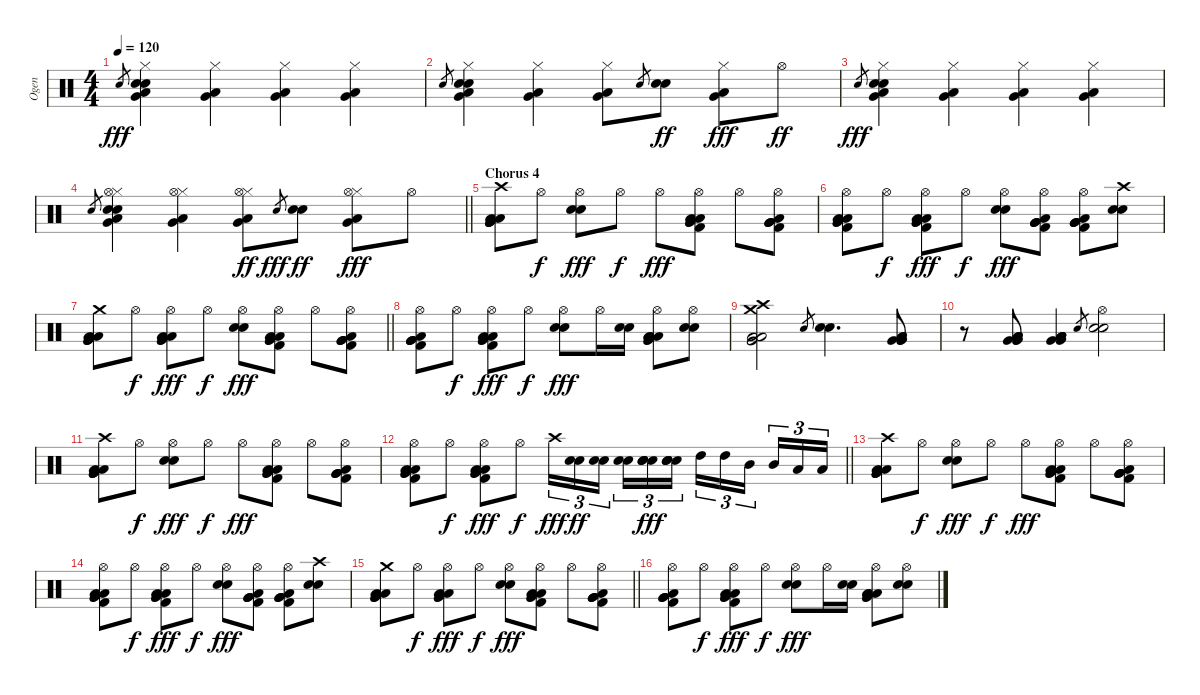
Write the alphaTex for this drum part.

\track ("Ogen" "Ogen") {instrument percussion}
\staff {score}
\articulation defaults
\ts (4 4)
\tempo 120
\clef neutral
\ks c "Electric Snare (hit)".8{gr dy fff}
("Very Low Tom (hit)" "Low Floor Tom (hit)" "Electric Snare (hit)" "Snare (hit) 2" "Hi-Hat (closed)").4 ("Low Floor Tom (hit)" "Very Low Tom (hit)" "Hi-Hat (closed)").4 ("Very Low Tom (hit)" "Low Floor Tom (hit)" "Hi-Hat (closed)").4 ("Low Floor Tom (hit)" "Very Low Tom (hit)" "Hi-Hat (closed)").4 |
"Electric Snare (hit)".8{gr} ("Very Low Tom (hit)" "Low Floor Tom (hit)" "Electric Snare (hit)" "Snare (hit) 2" "Hi-Hat (closed)").4 ("Low Floor Tom (hit)" "Very Low Tom (hit)" "Hi-Hat (closed)").4 ("Very Low Tom (hit)" "Low Floor Tom (hit)" "Hi-Hat (closed)").8 "Electric Snare (hit)".8{gr} ("Electric Snare (hit)" "Snare (hit) 2").8{dy ff} ("Low Floor Tom (hit)" "Very Low Tom (hit)" "Hi-Hat (closed)").8{dy fff} "Hi-Hat (open)".8{dy ff} |
"Electric Snare (hit)".8{gr dy fff} ("Very Low Tom (hit)" "Low Floor Tom (hit)" "Electric Snare (hit)" "Snare (hit) 2" "Hi-Hat (closed)").4 ("Low Floor Tom (hit)" "Very Low Tom (hit)" "Hi-Hat (closed)").4 ("Very Low Tom (hit)" "Low Floor Tom (hit)" "Hi-Hat (closed)").4 ("Low Floor Tom (hit)" "Very Low Tom (hit)" "Hi-Hat (closed)").4 |
\barLineRight lightlight "Electric Snare (hit)".8{gr}
("Very Low Tom (hit)" "Low Floor Tom (hit)" "Electric Snare (hit)" "Snare (hit) 2" "Hi-Hat (closed)" "Hi-Hat (open)").4 ("Low Floor Tom (hit)" "Very Low Tom (hit)" "Hi-Hat (closed)" "Hi-Hat (open)").4 ("Very Low Tom (hit)" "Low Floor Tom (hit)" "Hi-Hat (closed)" "Hi-Hat (open)").8{dy ff} "Electric Snare (hit)".8{gr dy fff} ("Electric Snare (hit)" "Snare (hit) 2").8{dy ff} ("Low Floor Tom (hit)" "Very Low Tom (hit)" "Hi-Hat (closed)" "Hi-Hat (open)").8{dy fff} "Hi-Hat (open)".8 |
\section ("" "Chorus 4")
("Crash high (hit)" "Very Low Tom (hit)" "Low Floor Tom (hit)" "Very Low Tom (hit)" "Low Floor Tom (hit)" "Very Low Tom (hit)").8 "Hi-Hat (open)".8{dy f} ("Hi-Hat (open)" "Electric Snare (hit)" "Snare (hit) 2").8{dy fff} "Hi-Hat (open)".8{dy f} "Hi-Hat (open)".8{dy fff} ("Hi-Hat (open)" "Very Low Tom (hit)" "Kick (hit) 2" "Low Floor Tom (hit)" "Very Low Tom (hit)" "Low Floor Tom (hit)").8 "Hi-Hat (open)".8 ("Hi-Hat (open)" "Very Low Tom (hit)" "Kick (hit) 2" "Very Low Tom (hit)" "Low Floor Tom (hit)" "Very Low Tom (hit)").8 |
("Hi-Hat (open)" "Kick (hit) 2" "Very Low Tom (hit)" "Low Floor Tom (hit)" "Very Low Tom (hit)" "Low Floor Tom (hit)").8 "Hi-Hat (open)".8{dy f} ("Hi-Hat (open)" "Kick (hit) 2" "Very Low Tom (hit)" "Low Floor Tom (hit)" "Very Low Tom (hit)" "Low Floor Tom (hit)").8{dy fff} "Hi-Hat (open)".8{dy f} ("Hi-Hat (open)" "Snare (hit) 2" "Electric Snare (hit)").8{dy fff} ("Hi-Hat (open)" "Kick (hit) 2" "Very Low Tom (hit)" "Very Low Tom (hit)" "Low Floor Tom (hit)" "Very Low Tom (hit)").8 ("Hi-Hat (open)" "Very Low Tom (hit)" "Kick (hit) 2" "Very Low Tom (hit)" "Low Floor Tom (hit)" "Very Low Tom (hit)").8 ("Crash high (hit)" "Snare (hit) 2" "Electric Snare (hit)").8 |
\barLineRight lightlight
("Crash medium (hit)" "Very Low Tom (hit)" "Low Floor Tom (hit)" "Very Low Tom (hit)" "Low Floor Tom (hit)" "Very Low Tom (hit)").8 "Hi-Hat (open)".8{dy f} ("Hi-Hat (open)" "Very Low Tom (hit)" "Low Floor Tom (hit)" "Very Low Tom (hit)" "Low Floor Tom (hit)").8{dy fff} "Hi-Hat (open)".8{dy f} ("Hi-Hat (open)" "Snare (hit) 2" "Electric Snare (hit)").8{dy fff} ("Hi-Hat (open)" "Very Low Tom (hit)" "Kick (hit) 2" "Low Floor Tom (hit)" "Very Low Tom (hit)" "Low Floor Tom (hit)").8 "Hi-Hat (open)".8 ("Hi-Hat (open)" "Very Low Tom (hit)" "Kick (hit) 2" "Very Low Tom (hit)" "Low Floor Tom (hit)" "Very Low Tom (hit)").8 |
("Hi-Hat (open)" "Kick (hit) 2" "Very Low Tom (hit)" "Very Low Tom (hit)" "Low Floor Tom (hit)" "Very Low Tom (hit)").8 "Hi-Hat (open)".8{dy f} ("Hi-Hat (open)" "Kick (hit) 2" "Very Low Tom (hit)" "Low Floor Tom (hit)" "Very Low Tom (hit)" "Low Floor Tom (hit)").8{dy fff} "Hi-Hat (open)".8{dy f} ("Hi-Hat (open)" "Snare (hit) 2" "Electric Snare (hit)").8{dy fff} "Hi-Hat (open)".16 ("Snare (hit) 2" "Electric Snare (hit)").16 ("Low Floor Tom (hit)" "Low Floor Tom (hit)" "Low Floor Tom (hit)" "Very Low Tom (hit)" "Very Low Tom (hit)" "Hi-Hat (open)").8 ("Snare (hit) 2" "Electric Snare (hit)" "Hi-Hat (open)").8 |
("Crash high (hit)" "Crash medium (hit)" "Low Floor Tom (hit)" "Very Low Tom (hit)" "Low Floor Tom (hit)" "Very Low Tom (hit)").2 "Snare (hit) 2".8{gr} ("Snare (hit) 2" "Electric Snare (hit)").4{d} ("Very Low Tom (hit)" "Very Low Tom (hit)" "Low Floor Tom (hit)" "Very Low Tom (hit)" "Low Floor Tom (hit)").8 |
r.8 ("Very Low Tom (hit)" "Low Floor Tom (hit)" "Very Low Tom (hit)" "Low Floor Tom (hit)" "Very Low Tom (hit)" "Low Floor Tom (hit)").8 ("Low Floor Tom (hit)" "Very Low Tom (hit)" "Low Floor Tom (hit)" "Very Low Tom (hit)" "Low Floor Tom (hit)").4 "Electric Snare (hit)".8{gr} ("Electric Snare (hit)" "Snare (hit) 2" "Hi-Hat (open)").2 |
("Crash high (hit)" "Very Low Tom (hit)" "Low Floor Tom (hit)" "Very Low Tom (hit)" "Low Floor Tom (hit)" "Very Low Tom (hit)").8 "Hi-Hat (open)".8{dy f} ("Hi-Hat (open)" "Electric Snare (hit)" "Snare (hit) 2").8{dy fff} "Hi-Hat (open)".8{dy f} "Hi-Hat (open)".8{dy fff} ("Hi-Hat (open)" "Very Low Tom (hit)" "Kick (hit) 2" "Low Floor Tom (hit)" "Very Low Tom (hit)" "Low Floor Tom (hit)").8 "Hi-Hat (open)".8 ("Hi-Hat (open)" "Very Low Tom (hit)" "Kick (hit) 2" "Very Low Tom (hit)" "Low Floor Tom (hit)" "Very Low Tom (hit)").8 |
\barLineRight lightlight
("Hi-Hat (open)" "Kick (hit) 2" "Very Low Tom (hit)" "Low Floor Tom (hit)" "Very Low Tom (hit)" "Low Floor Tom (hit)").8 "Hi-Hat (open)".8{dy f} ("Hi-Hat (open)" "Kick (hit) 2" "Very Low Tom (hit)" "Low Floor Tom (hit)" "Very Low Tom (hit)" "Low Floor Tom (hit)").8{dy fff} "Hi-Hat (open)".8{dy f} "Crash high (hit)".16{tu (3 2) dy fff} ("Snare (hit) 2" "Electric Snare (hit)").16{tu (3 2) dy ff} ("Electric Snare (hit)" "Snare (hit) 2").16{tu (3 2) beam splitsecondary} ("Snare (hit) 2" "Electric Snare (hit)").16{tu (3 2)} ("Electric Snare (hit)" "Electric Snare (hit)" "Snare (hit) 2" "Snare (hit) 2").16{tu (3 2) dy fff} ("Electric Snare (hit)" "Snare (hit) 2" "Snare (hit) 2" "Electric Snare (hit)").16{tu (3 2)} "High Tom (hit)".16{tu (3 2)} "High Tom (hit)".16{tu (3 2)} "Mid Tom (hit)".16{tu (3 2) beam splitsecondary} "Mid Tom (hit)".16{tu (3 2)} "Low Tom (hit)".16{tu (3 2)} "Low Tom (hit)".16{tu (3 2)} |
("Crash high (hit)" "Very Low Tom (hit)" "Low Floor Tom (hit)" "Very Low Tom (hit)" "Low Floor Tom (hit)" "Very Low Tom (hit)").8 "Hi-Hat (open)".8{dy f} ("Hi-Hat (open)" "Electric Snare (hit)" "Snare (hit) 2").8{dy fff} "Hi-Hat (open)".8{dy f} "Hi-Hat (open)".8{dy fff} ("Hi-Hat (open)" "Very Low Tom (hit)" "Kick (hit) 2" "Low Floor Tom (hit)" "Very Low Tom (hit)" "Low Floor Tom (hit)").8 "Hi-Hat (open)".8 ("Hi-Hat (open)" "Very Low Tom (hit)" "Kick (hit) 2" "Very Low Tom (hit)" "Low Floor Tom (hit)" "Very Low Tom (hit)").8 |
("Hi-Hat (open)" "Kick (hit) 2" "Very Low Tom (hit)" "Low Floor Tom (hit)" "Very Low Tom (hit)" "Low Floor Tom (hit)").8 "Hi-Hat (open)".8{dy f} ("Hi-Hat (open)" "Kick (hit) 2" "Very Low Tom (hit)" "Low Floor Tom (hit)" "Very Low Tom (hit)" "Low Floor Tom (hit)").8{dy fff} "Hi-Hat (open)".8{dy f} ("Hi-Hat (open)" "Snare (hit) 2" "Electric Snare (hit)").8{dy fff} ("Hi-Hat (open)" "Kick (hit) 2" "Very Low Tom (hit)" "Very Low Tom (hit)" "Low Floor Tom (hit)" "Very Low Tom (hit)").8 ("Hi-Hat (open)" "Very Low Tom (hit)" "Kick (hit) 2" "Very Low Tom (hit)" "Low Floor Tom (hit)" "Very Low Tom (hit)").8 ("Crash high (hit)" "Snare (hit) 2" "Electric Snare (hit)").8 |
\barLineRight lightlight
("Crash medium (hit)" "Very Low Tom (hit)" "Low Floor Tom (hit)" "Very Low Tom (hit)" "Low Floor Tom (hit)" "Very Low Tom (hit)").8 "Hi-Hat (open)".8{dy f} ("Hi-Hat (open)" "Very Low Tom (hit)" "Low Floor Tom (hit)" "Very Low Tom (hit)" "Low Floor Tom (hit)").8{dy fff} "Hi-Hat (open)".8{dy f} ("Hi-Hat (open)" "Snare (hit) 2" "Electric Snare (hit)").8{dy fff} ("Hi-Hat (open)" "Very Low Tom (hit)" "Kick (hit) 2" "Low Floor Tom (hit)" "Very Low Tom (hit)" "Low Floor Tom (hit)").8 "Hi-Hat (open)".8 ("Hi-Hat (open)" "Very Low Tom (hit)" "Kick (hit) 2" "Very Low Tom (hit)" "Low Floor Tom (hit)" "Very Low Tom (hit)").8 |
("Hi-Hat (open)" "Kick (hit) 2" "Very Low Tom (hit)" "Very Low Tom (hit)" "Low Floor Tom (hit)" "Very Low Tom (hit)").8 "Hi-Hat (open)".8{dy f} ("Hi-Hat (open)" "Kick (hit) 2" "Very Low Tom (hit)" "Low Floor Tom (hit)" "Very Low Tom (hit)" "Low Floor Tom (hit)").8{dy fff} "Hi-Hat (open)".8{dy f} ("Hi-Hat (open)" "Snare (hit) 2" "Electric Snare (hit)").8{dy fff} "Hi-Hat (open)".16 ("Snare (hit) 2" "Electric Snare (hit)").16 ("Low Floor Tom (hit)" "Low Floor Tom (hit)" "Low Floor Tom (hit)" "Very Low Tom (hit)" "Very Low Tom (hit)" "Hi-Hat (open)").8 ("Snare (hit) 2" "Electric Snare (hit)" "Hi-Hat (open)").8
